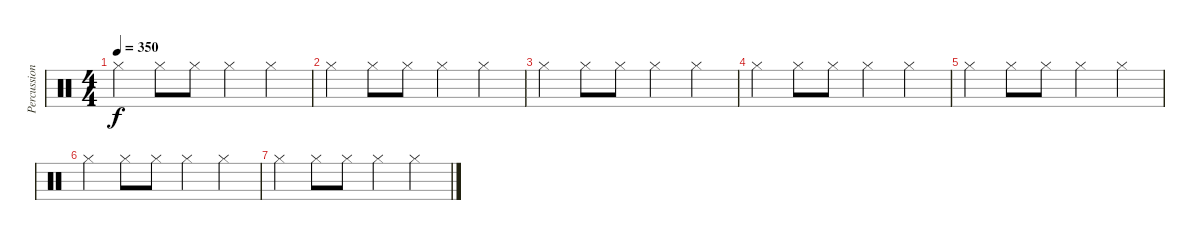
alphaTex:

\track ("Percussions" "Percussion") {instrument percussion}
\staff {score}
\articulation defaults
\ts (4 4)
\tempo 350
\clef neutral
\ks c "Hi-Hat (closed)".4{dy f} "Hi-Hat (closed)".8 "Hi-Hat (closed)".8 "Hi-Hat (closed)".4 "Hi-Hat (closed)".4
|
"Hi-Hat (closed)".4 "Hi-Hat (closed)".8 "Hi-Hat (closed)".8 "Hi-Hat (closed)".4 "Hi-Hat (closed)".4 |
"Hi-Hat (closed)".4 "Hi-Hat (closed)".8 "Hi-Hat (closed)".8 "Hi-Hat (closed)".4 "Hi-Hat (closed)".4 |
"Hi-Hat (closed)".4 "Hi-Hat (closed)".8 "Hi-Hat (closed)".8 "Hi-Hat (closed)".4 "Hi-Hat (closed)".4 |
"Hi-Hat (closed)".4 "Hi-Hat (closed)".8 "Hi-Hat (closed)".8 "Hi-Hat (closed)".4 "Hi-Hat (closed)".4 |
"Hi-Hat (closed)".4 "Hi-Hat (closed)".8 "Hi-Hat (closed)".8 "Hi-Hat (closed)".4 "Hi-Hat (closed)".4 |
"Hi-Hat (closed)".4 "Hi-Hat (closed)".8 "Hi-Hat (closed)".8 "Hi-Hat (closed)".4 "Hi-Hat (closed)".4
